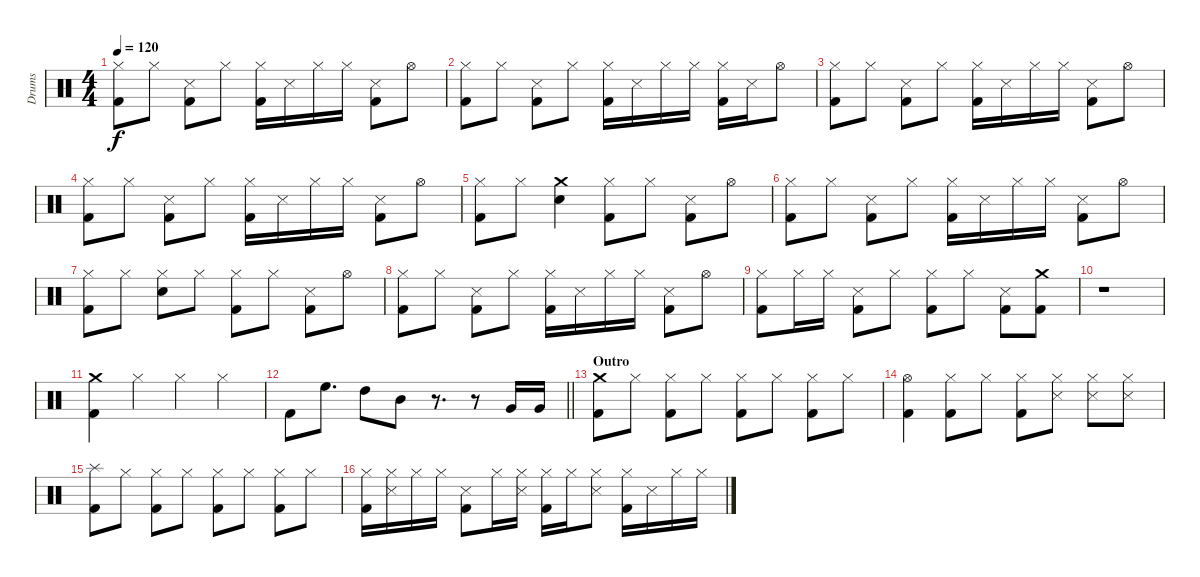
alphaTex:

\track ("Drums" "Drums") {instrument percussion}
\staff {score}
\articulation defaults
\ts (4 4)
\tempo 120
\clef neutral
\ks c
("Hi-Hat (closed)" "Kick (hit) 2").8{dy f} "Hi-Hat (closed)".8 ("Snare (side stick) 3" "Kick (hit) 2").8 "Hi-Hat (closed)".8 ("Hi-Hat (closed)" "Kick (hit) 2").16 "Snare (side stick) 3".16 "Hi-Hat (closed)".16 "Hi-Hat (closed)".16 ("Snare (side stick) 3" "Kick (hit) 2").8 "Hi-Hat (open)".8 |
("Hi-Hat (closed)" "Kick (hit) 2").8 "Hi-Hat (closed)".8 ("Snare (side stick) 3" "Kick (hit) 2").8 "Hi-Hat (closed)".8 ("Hi-Hat (closed)" "Kick (hit) 2").16 "Snare (side stick) 3".16 "Hi-Hat (closed)".16 "Hi-Hat (closed)".16 ("Hi-Hat (closed)" "Kick (hit) 2").16 "Snare (side stick) 3".16 "Hi-Hat (open)".8 |
("Hi-Hat (closed)" "Kick (hit) 2").8 "Hi-Hat (closed)".8 ("Snare (side stick) 3" "Kick (hit) 2").8 "Hi-Hat (closed)".8 ("Hi-Hat (closed)" "Kick (hit) 2").16 "Snare (side stick) 3".16 "Hi-Hat (closed)".16 "Hi-Hat (closed)".16 ("Snare (side stick) 3" "Kick (hit) 2").8 "Hi-Hat (open)".8 |
("Hi-Hat (closed)" "Kick (hit) 2").8 "Hi-Hat (closed)".8 ("Snare (side stick) 3" "Kick (hit) 2").8 "Hi-Hat (closed)".8 ("Hi-Hat (closed)" "Kick (hit) 2").16 "Snare (side stick) 3".16 "Hi-Hat (closed)".16 "Hi-Hat (closed)".16 ("Snare (side stick) 3" "Kick (hit) 2").8 "Hi-Hat (open)".8 |
("Hi-Hat (closed)" "Kick (hit) 2").8 "Hi-Hat (closed)".8 ("Crash medium (hit)" "Snare (hit) 2").4 ("Hi-Hat (closed)" "Kick (hit) 2").8 "Hi-Hat (closed)".8 ("Snare (side stick) 3" "Kick (hit) 2").8 "Hi-Hat (open)".8 |
("Hi-Hat (closed)" "Kick (hit) 2").8 "Hi-Hat (closed)".8 ("Snare (side stick) 3" "Kick (hit) 2").8 "Hi-Hat (closed)".8 ("Hi-Hat (closed)" "Kick (hit) 2").16 "Snare (side stick) 3".16 "Hi-Hat (closed)".16 "Hi-Hat (closed)".16 ("Snare (side stick) 3" "Kick (hit) 2").8 "Hi-Hat (open)".8 |
("Hi-Hat (closed)" "Kick (hit) 2").8 "Hi-Hat (closed)".8 ("Hi-Hat (closed)" "Snare (hit) 2").8 "Hi-Hat (closed)".8 ("Hi-Hat (closed)" "Kick (hit) 2").8 "Hi-Hat (closed)".8 ("Snare (side stick) 3" "Kick (hit) 2").8 "Hi-Hat (open)".8 |
("Hi-Hat (closed)" "Kick (hit) 2").8 "Hi-Hat (closed)".8 ("Snare (side stick) 3" "Kick (hit) 2").8 "Hi-Hat (closed)".8 ("Hi-Hat (closed)" "Kick (hit) 2").16 "Snare (side stick) 3".16 "Hi-Hat (closed)".16 "Hi-Hat (closed)".16 ("Snare (side stick) 3" "Kick (hit) 2").8 "Hi-Hat (open)".8 |
("Hi-Hat (closed)" "Kick (hit) 2").8 "Hi-Hat (closed)".16 "Hi-Hat (closed)".16 ("Snare (side stick) 3" "Kick (hit) 2").8 "Hi-Hat (closed)".8 ("Hi-Hat (closed)" "Kick (hit) 2").8 "Hi-Hat (closed)".8 ("Snare (side stick) 3" "Kick (hit) 2").8 ("Crash medium (hit)" "Kick (hit) 2").8 |
r.1 |
("Crash medium (hit)" "Kick (hit) 2").4 "Hi-Hat (closed)".4 "Hi-Hat (closed)".4 "Hi-Hat (closed)".4 |
\barLineRight lightlight "Kick (hit) 2".8 "High Floor Tom (hit)".8{d} "High Tom (hit)".8 "Mid Tom (hit)".8
r.8{d} r.8 "Very Low Tom (hit)".16 "Very Low Tom (hit)".16 |
\section ("" "Outro")
("Crash medium (hit)" "Kick (hit) 2").8 "Hi-Hat (closed)".8 ("Hi-Hat (closed)" "Kick (hit) 2").8 "Hi-Hat (closed)".8 ("Hi-Hat (closed)" "Kick (hit) 2").8 "Hi-Hat (closed)".8 ("Hi-Hat (closed)" "Kick (hit) 2").8 "Hi-Hat (closed)".8 |
("Hi-Hat (open)" "Kick (hit) 2").4 ("Hi-Hat (closed)" "Kick (hit) 2").8 "Hi-Hat (closed)".8 ("Hi-Hat (closed)" "Kick (hit) 2").8 ("Hi-Hat (closed)" "Snare (side stick) 3").8 ("Hi-Hat (closed)" "Snare (side stick) 3").8 ("Hi-Hat (closed)" "Snare (side stick) 3").8 |
("Splash (hit)" "Kick (hit) 2").8 "Hi-Hat (closed)".8 ("Hi-Hat (closed)" "Kick (hit) 2").8 "Hi-Hat (closed)".8 ("Hi-Hat (closed)" "Kick (hit) 2").8 "Hi-Hat (closed)".8 ("Hi-Hat (closed)" "Kick (hit) 2").8 "Hi-Hat (closed)".8 |
("Hi-Hat (closed)" "Kick (hit) 2").16 ("Hi-Hat (closed)" "Snare (side stick) 3").16 "Hi-Hat (closed)".16 "Hi-Hat (closed)".16 ("Kick (hit) 2" "Snare (side stick) 3").8 "Hi-Hat (closed)".16 ("Hi-Hat (closed)" "Snare (side stick) 3").16 ("Hi-Hat (closed)" "Kick (hit) 2").16 "Hi-Hat (closed)".16 ("Hi-Hat (closed)" "Snare (side stick) 3").8 ("Hi-Hat (closed)" "Kick (hit) 2").16 "Snare (side stick) 3".16 "Hi-Hat (closed)".16 "Hi-Hat (closed)".16
